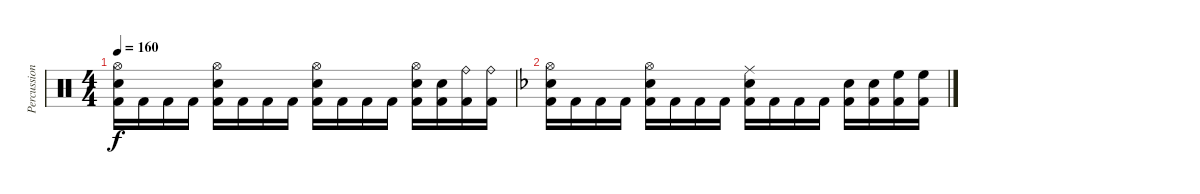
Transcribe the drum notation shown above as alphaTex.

\track ("Percussion" "Percussion") {instrument percussion}
\staff {score}
\articulation defaults
\ts (4 4)
\tempo 160
\clef neutral
\ks c
("Hi-Hat (open)" "Snare (hit) 2" "Kick (hit) 2").16{dy f} "Kick (hit) 2".16 "Kick (hit) 2".16 "Kick (hit) 2".16 ("Hi-Hat (open)" "Snare (hit) 2" "Kick (hit) 2").16 "Kick (hit) 2".16 "Kick (hit) 2".16 "Kick (hit) 2".16 ("Hi-Hat (open)" "Snare (hit) 2" "Kick (hit) 2").16 "Kick (hit) 2".16 "Kick (hit) 2".16 "Kick (hit) 2".16 ("Hi-Hat (open)" "Snare (hit) 2" "Kick (hit) 2").16 ("Snare (hit) 2" "Kick (hit) 2").16 ("Ride (bell)" "Kick (hit) 2").16 ("Ride (bell)" "Kick (hit) 2").16 |
\ks dminor
("Hi-Hat (open)" "Snare (hit) 2" "Kick (hit) 2").16 "Kick (hit) 2".16 "Kick (hit) 2".16 "Kick (hit) 2".16 ("Hi-Hat (open)" "Snare (hit) 2" "Kick (hit) 2").16 "Kick (hit) 2".16 "Kick (hit) 2".16 "Kick (hit) 2".16 ("Ride (middle)" "Snare (hit) 2" "Kick (hit) 2").16 "Kick (hit) 2".16 "Kick (hit) 2".16 "Kick (hit) 2".16 ("Snare (hit) 2" "Kick (hit) 2").16 ("Snare (hit) 2" "Kick (hit) 2").16 ("High Floor Tom (hit)" "Kick (hit) 2").16 ("High Floor Tom (hit)" "Kick (hit) 2").16
